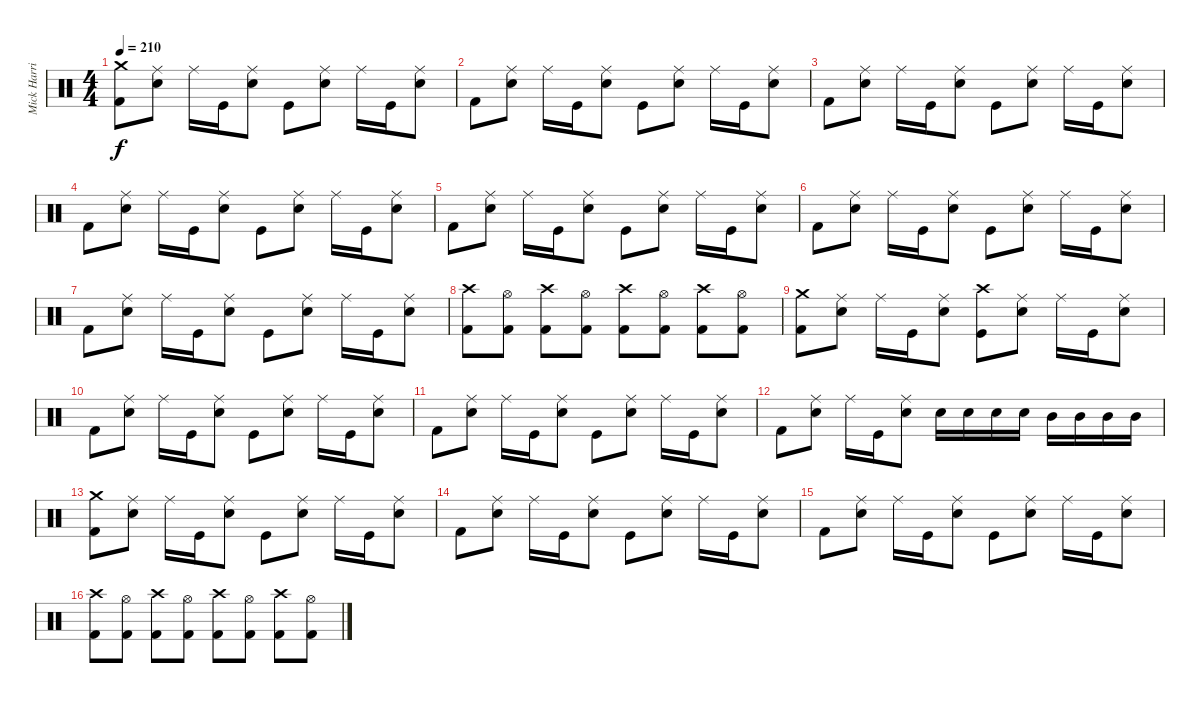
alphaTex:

\track ("Mick Harris (Drums)" "Mick Harri") {instrument percussion}
\staff {score}
\articulation defaults
\ts (4 4)
\tempo 210
\clef neutral
\ks c
("Kick (hit) 2" "Crash medium (hit)").8{dy f} ("Electric Snare (hit)" "Ride (middle)").8 "Ride (middle)".16 "Kick (hit)".16 ("Electric Snare (hit)" "Ride (middle)").8 "Kick (hit)".8 ("Electric Snare (hit)" "Ride (middle)").8 "Ride (middle)".16 "Kick (hit)".16 ("Electric Snare (hit)" "Ride (middle)").8 |
"Kick (hit) 2".8 ("Electric Snare (hit)" "Ride (middle)").8 "Ride (middle)".16 "Kick (hit)".16 ("Electric Snare (hit)" "Ride (middle)").8 "Kick (hit)".8 ("Electric Snare (hit)" "Ride (middle)").8 "Ride (middle)".16 "Kick (hit)".16 ("Electric Snare (hit)" "Ride (middle)").8 |
"Kick (hit) 2".8 ("Electric Snare (hit)" "Ride (middle)").8 "Ride (middle)".16 "Kick (hit)".16 ("Electric Snare (hit)" "Ride (middle)").8 "Kick (hit)".8 ("Electric Snare (hit)" "Ride (middle)").8 "Ride (middle)".16 "Kick (hit)".16 ("Electric Snare (hit)" "Ride (middle)").8 |
"Kick (hit) 2".8 ("Electric Snare (hit)" "Ride (middle)").8 "Ride (middle)".16 "Kick (hit)".16 ("Electric Snare (hit)" "Ride (middle)").8 "Kick (hit)".8 ("Electric Snare (hit)" "Ride (middle)").8 "Ride (middle)".16 "Kick (hit)".16 ("Electric Snare (hit)" "Ride (middle)").8 |
"Kick (hit) 2".8 ("Electric Snare (hit)" "Ride (middle)").8 "Ride (middle)".16 "Kick (hit)".16 ("Electric Snare (hit)" "Ride (middle)").8 "Kick (hit)".8 ("Electric Snare (hit)" "Ride (middle)").8 "Ride (middle)".16 "Kick (hit)".16 ("Electric Snare (hit)" "Ride (middle)").8 |
"Kick (hit) 2".8 ("Electric Snare (hit)" "Ride (middle)").8 "Ride (middle)".16 "Kick (hit)".16 ("Electric Snare (hit)" "Ride (middle)").8 "Kick (hit)".8 ("Electric Snare (hit)" "Ride (middle)").8 "Ride (middle)".16 "Kick (hit)".16 ("Electric Snare (hit)" "Ride (middle)").8 |
"Kick (hit) 2".8 ("Electric Snare (hit)" "Ride (middle)").8 "Ride (middle)".16 "Kick (hit)".16 ("Electric Snare (hit)" "Ride (middle)").8 "Kick (hit)".8 ("Electric Snare (hit)" "Ride (middle)").8 "Ride (middle)".16 "Kick (hit)".16 ("Electric Snare (hit)" "Ride (middle)").8 |
("Kick (hit) 2" "Crash high (hit)").8 ("Kick (hit) 2" "Hi-Hat (open)").8{volume 0} ("Kick (hit) 2" "Crash high (hit)").8{volume 16} ("Kick (hit) 2" "Hi-Hat (open)").8{volume 0} ("Kick (hit) 2" "Crash high (hit)").8{volume 16} ("Kick (hit) 2" "Hi-Hat (open)").8{volume 0} ("Kick (hit) 2" "Crash high (hit)").8{volume 16} ("Kick (hit) 2" "Hi-Hat (open)").8{volume 0} |
("Kick (hit) 2" "Crash medium (hit)").8{volume 16} ("Electric Snare (hit)" "Ride (middle)").8 "Ride (middle)".16 "Kick (hit)".16 ("Electric Snare (hit)" "Ride (middle)").8 ("Kick (hit)" "Crash high (hit)").8 ("Electric Snare (hit)" "Ride (middle)").8 "Ride (middle)".16 "Kick (hit)".16 ("Electric Snare (hit)" "Ride (middle)").8 |
"Kick (hit) 2".8 ("Electric Snare (hit)" "Ride (middle)").8 "Ride (middle)".16 "Kick (hit)".16 ("Electric Snare (hit)" "Ride (middle)").8 "Kick (hit)".8 ("Electric Snare (hit)" "Ride (middle)").8 "Ride (middle)".16 "Kick (hit)".16 ("Electric Snare (hit)" "Ride (middle)").8 |
"Kick (hit) 2".8 ("Electric Snare (hit)" "Ride (middle)").8 "Ride (middle)".16 "Kick (hit)".16 ("Electric Snare (hit)" "Ride (middle)").8 "Kick (hit)".8 ("Electric Snare (hit)" "Ride (middle)").8 "Ride (middle)".16 "Kick (hit)".16 ("Electric Snare (hit)" "Ride (middle)").8 |
"Kick (hit) 2".8 ("Electric Snare (hit)" "Ride (middle)").8 "Ride (middle)".16 "Kick (hit)".16 ("Electric Snare (hit)" "Ride (middle)").8 "Electric Snare (hit)".16 "Electric Snare (hit)".16 "Electric Snare (hit)".16 "Electric Snare (hit)".16 "Mid Tom (hit)".16 "Mid Tom (hit)".16 "Mid Tom (hit)".16 "Mid Tom (hit)".16 |
("Kick (hit) 2" "Crash medium (hit)").8 ("Electric Snare (hit)" "Ride (middle)").8 "Ride (middle)".16 "Kick (hit)".16 ("Electric Snare (hit)" "Ride (middle)").8 "Kick (hit)".8 ("Electric Snare (hit)" "Ride (middle)").8 "Ride (middle)".16 "Kick (hit)".16 ("Electric Snare (hit)" "Ride (middle)").8 |
"Kick (hit) 2".8 ("Electric Snare (hit)" "Ride (middle)").8 "Ride (middle)".16 "Kick (hit)".16 ("Electric Snare (hit)" "Ride (middle)").8 "Kick (hit)".8 ("Electric Snare (hit)" "Ride (middle)").8 "Ride (middle)".16 "Kick (hit)".16 ("Electric Snare (hit)" "Ride (middle)").8 |
"Kick (hit) 2".8 ("Electric Snare (hit)" "Ride (middle)").8 "Ride (middle)".16 "Kick (hit)".16 ("Electric Snare (hit)" "Ride (middle)").8 "Kick (hit)".8 ("Electric Snare (hit)" "Ride (middle)").8 "Ride (middle)".16 "Kick (hit)".16 ("Electric Snare (hit)" "Ride (middle)").8 |
("Kick (hit) 2" "Crash high (hit)").8 ("Kick (hit) 2" "Hi-Hat (open)").8{volume 0} ("Kick (hit) 2" "Crash high (hit)").8{volume 16} ("Kick (hit) 2" "Hi-Hat (open)").8{volume 0} ("Kick (hit) 2" "Crash high (hit)").8{volume 16} ("Kick (hit) 2" "Hi-Hat (open)").8{volume 0} ("Kick (hit) 2" "Crash high (hit)").8{volume 16} ("Kick (hit) 2" "Hi-Hat (open)").8{volume 0}
